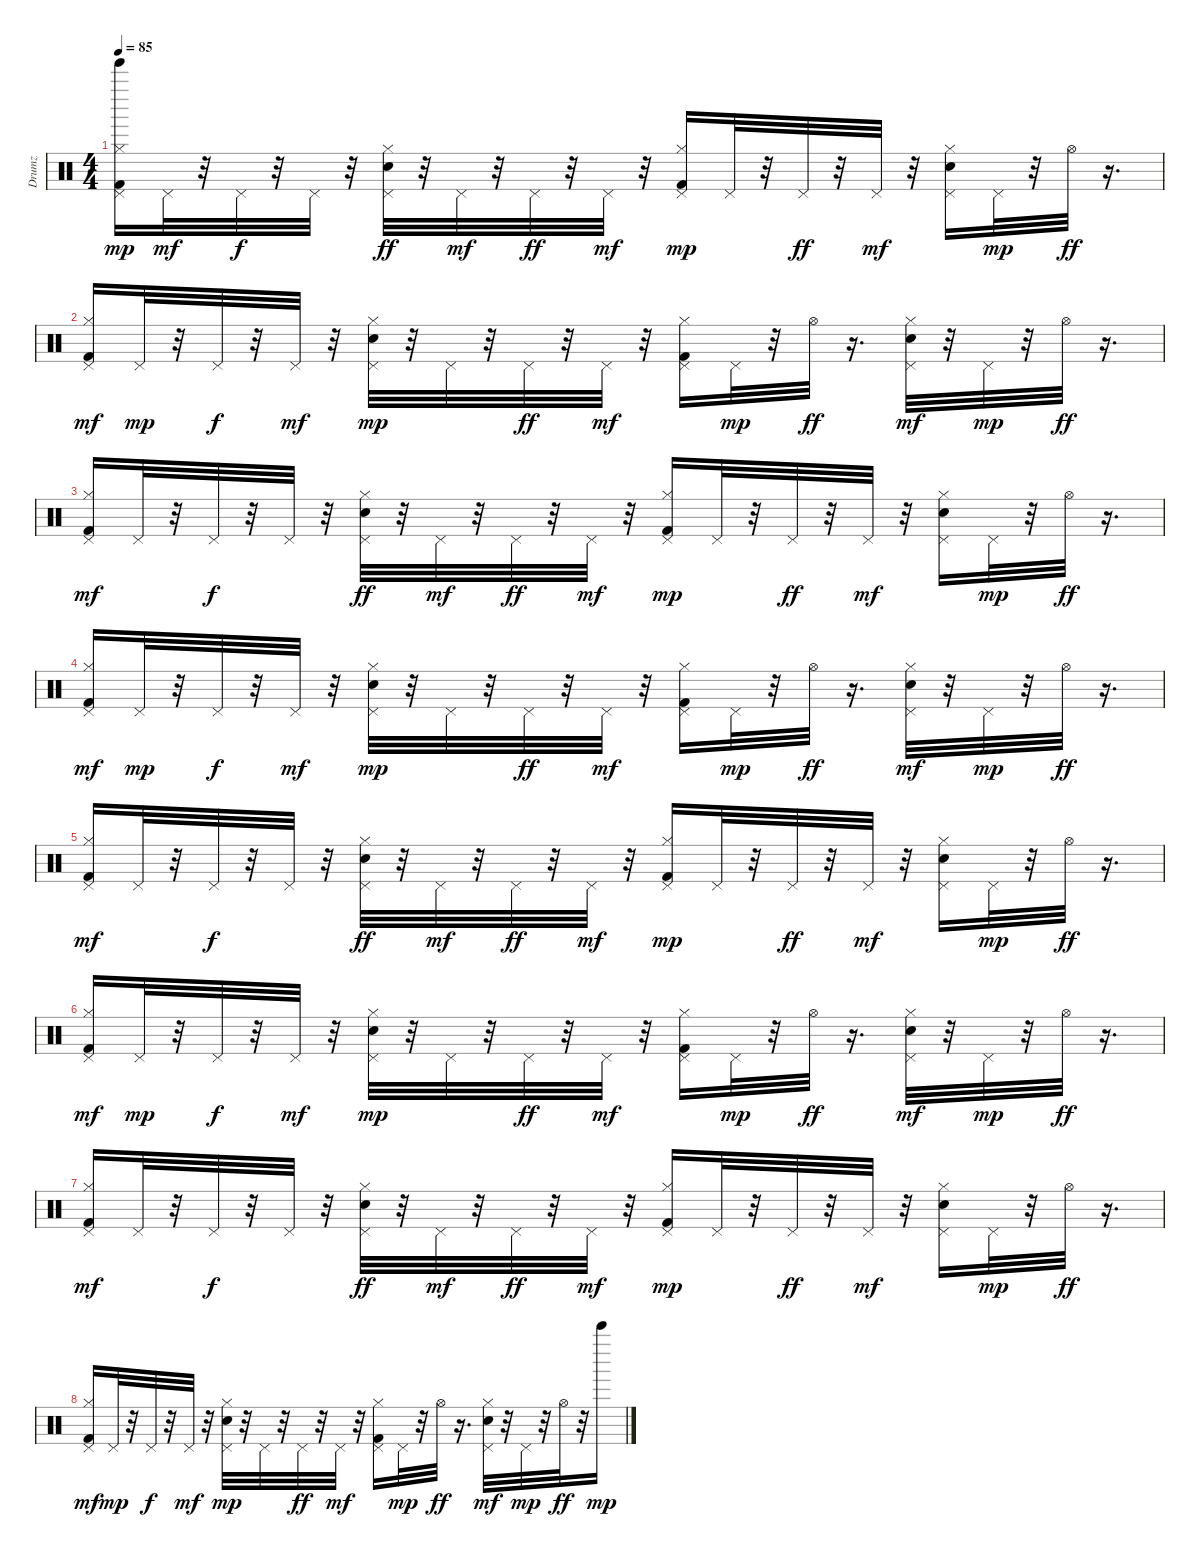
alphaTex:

\track ("Drumz" "Drumz") {instrument percussion}
\staff {score}
\articulation defaults
\ts (4 4)
\tempo 85
\clef neutral
\ks c
("Kick (hit) 2" "Hi-Hat (closed)" "Pedal Hi-Hat (hit)" "Tinkle Bell (hit)").16{dy mp volume 12} "Pedal Hi-Hat (hit)".32{dy mf} r.32 "Pedal Hi-Hat (hit)".32{dy f} r.32 "Pedal Hi-Hat (hit)".32 r.32 ("Hand Clap (hit)" "Hi-Hat (closed)" "Pedal Hi-Hat (hit)").32{dy ff} r.32 "Pedal Hi-Hat (hit)".32{dy mf} r.32 "Pedal Hi-Hat (hit)".32{dy ff} r.32 "Pedal Hi-Hat (hit)".32{dy mf} r.32 ("Kick (hit) 2" "Hi-Hat (closed)" "Pedal Hi-Hat (hit)").16{dy mp} "Pedal Hi-Hat (hit)".32 r.32 "Pedal Hi-Hat (hit)".32{dy ff} r.32 "Pedal Hi-Hat (hit)".32{dy mf} r.32 ("Hand Clap (hit)" "Hi-Hat (closed)" "Pedal Hi-Hat (hit)").16 "Pedal Hi-Hat (hit)".32{dy mp} r.32 "Hi-Hat (open)".32{dy ff} r.16{d} |
("Kick (hit) 2" "Hi-Hat (closed)" "Pedal Hi-Hat (hit)").16{dy mf} "Pedal Hi-Hat (hit)".32{dy mp} r.32 "Pedal Hi-Hat (hit)".32{dy f} r.32 "Pedal Hi-Hat (hit)".32{dy mf} r.32 ("Hand Clap (hit)" "Hi-Hat (closed)" "Pedal Hi-Hat (hit)").32{dy mp} r.32 "Pedal Hi-Hat (hit)".32 r.32 "Pedal Hi-Hat (hit)".32{dy ff} r.32 "Pedal Hi-Hat (hit)".32{dy mf} r.32 ("Kick (hit) 2" "Hi-Hat (closed)" "Pedal Hi-Hat (hit)").16 "Pedal Hi-Hat (hit)".32{dy mp} r.32 "Hi-Hat (open)".32{dy ff} r.16{d} ("Hand Clap (hit)" "Hi-Hat (closed)" "Pedal Hi-Hat (hit)").32{dy mf} r.32 "Pedal Hi-Hat (hit)".32{dy mp} r.32 "Hi-Hat (open)".32{dy ff} r.16{d} |
("Kick (hit) 2" "Hi-Hat (closed)" "Pedal Hi-Hat (hit)").16{dy mf} "Pedal Hi-Hat (hit)".32 r.32 "Pedal Hi-Hat (hit)".32{dy f} r.32 "Pedal Hi-Hat (hit)".32 r.32 ("Hand Clap (hit)" "Hi-Hat (closed)" "Pedal Hi-Hat (hit)").32{dy ff} r.32 "Pedal Hi-Hat (hit)".32{dy mf} r.32 "Pedal Hi-Hat (hit)".32{dy ff} r.32 "Pedal Hi-Hat (hit)".32{dy mf} r.32 ("Kick (hit) 2" "Hi-Hat (closed)" "Pedal Hi-Hat (hit)").16{dy mp} "Pedal Hi-Hat (hit)".32 r.32 "Pedal Hi-Hat (hit)".32{dy ff} r.32 "Pedal Hi-Hat (hit)".32{dy mf} r.32 ("Hand Clap (hit)" "Hi-Hat (closed)" "Pedal Hi-Hat (hit)").16 "Pedal Hi-Hat (hit)".32{dy mp} r.32 "Hi-Hat (open)".32{dy ff} r.16{d} |
("Kick (hit) 2" "Hi-Hat (closed)" "Pedal Hi-Hat (hit)").16{dy mf} "Pedal Hi-Hat (hit)".32{dy mp} r.32 "Pedal Hi-Hat (hit)".32{dy f} r.32 "Pedal Hi-Hat (hit)".32{dy mf} r.32 ("Hand Clap (hit)" "Hi-Hat (closed)" "Pedal Hi-Hat (hit)").32{dy mp} r.32 "Pedal Hi-Hat (hit)".32 r.32 "Pedal Hi-Hat (hit)".32{dy ff} r.32 "Pedal Hi-Hat (hit)".32{dy mf} r.32 ("Kick (hit) 2" "Hi-Hat (closed)" "Pedal Hi-Hat (hit)").16 "Pedal Hi-Hat (hit)".32{dy mp} r.32 "Hi-Hat (open)".32{dy ff} r.16{d} ("Hand Clap (hit)" "Hi-Hat (closed)" "Pedal Hi-Hat (hit)").32{dy mf} r.32 "Pedal Hi-Hat (hit)".32{dy mp} r.32 "Hi-Hat (open)".32{dy ff} r.16{d} |
("Kick (hit) 2" "Hi-Hat (closed)" "Pedal Hi-Hat (hit)").16{dy mf} "Pedal Hi-Hat (hit)".32 r.32 "Pedal Hi-Hat (hit)".32{dy f} r.32 "Pedal Hi-Hat (hit)".32 r.32 ("Hand Clap (hit)" "Hi-Hat (closed)" "Pedal Hi-Hat (hit)").32{dy ff} r.32 "Pedal Hi-Hat (hit)".32{dy mf} r.32 "Pedal Hi-Hat (hit)".32{dy ff} r.32 "Pedal Hi-Hat (hit)".32{dy mf} r.32 ("Kick (hit) 2" "Hi-Hat (closed)" "Pedal Hi-Hat (hit)").16{dy mp} "Pedal Hi-Hat (hit)".32 r.32 "Pedal Hi-Hat (hit)".32{dy ff} r.32 "Pedal Hi-Hat (hit)".32{dy mf} r.32 ("Hand Clap (hit)" "Hi-Hat (closed)" "Pedal Hi-Hat (hit)").16 "Pedal Hi-Hat (hit)".32{dy mp} r.32 "Hi-Hat (open)".32{dy ff} r.16{d} |
("Kick (hit) 2" "Hi-Hat (closed)" "Pedal Hi-Hat (hit)").16{dy mf} "Pedal Hi-Hat (hit)".32{dy mp} r.32 "Pedal Hi-Hat (hit)".32{dy f} r.32 "Pedal Hi-Hat (hit)".32{dy mf} r.32 ("Hand Clap (hit)" "Hi-Hat (closed)" "Pedal Hi-Hat (hit)").32{dy mp} r.32 "Pedal Hi-Hat (hit)".32 r.32 "Pedal Hi-Hat (hit)".32{dy ff} r.32 "Pedal Hi-Hat (hit)".32{dy mf} r.32 ("Kick (hit) 2" "Hi-Hat (closed)" "Pedal Hi-Hat (hit)").16 "Pedal Hi-Hat (hit)".32{dy mp} r.32 "Hi-Hat (open)".32{dy ff} r.16{d} ("Hand Clap (hit)" "Hi-Hat (closed)" "Pedal Hi-Hat (hit)").32{dy mf} r.32 "Pedal Hi-Hat (hit)".32{dy mp} r.32 "Hi-Hat (open)".32{dy ff} r.16{d} |
("Kick (hit) 2" "Hi-Hat (closed)" "Pedal Hi-Hat (hit)").16{dy mf} "Pedal Hi-Hat (hit)".32 r.32 "Pedal Hi-Hat (hit)".32{dy f} r.32 "Pedal Hi-Hat (hit)".32 r.32 ("Hand Clap (hit)" "Hi-Hat (closed)" "Pedal Hi-Hat (hit)").32{dy ff} r.32 "Pedal Hi-Hat (hit)".32{dy mf} r.32 "Pedal Hi-Hat (hit)".32{dy ff} r.32 "Pedal Hi-Hat (hit)".32{dy mf} r.32 ("Kick (hit) 2" "Hi-Hat (closed)" "Pedal Hi-Hat (hit)").16{dy mp} "Pedal Hi-Hat (hit)".32 r.32 "Pedal Hi-Hat (hit)".32{dy ff} r.32 "Pedal Hi-Hat (hit)".32{dy mf} r.32 ("Hand Clap (hit)" "Hi-Hat (closed)" "Pedal Hi-Hat (hit)").16 "Pedal Hi-Hat (hit)".32{dy mp} r.32 "Hi-Hat (open)".32{dy ff} r.16{d} |
("Kick (hit) 2" "Hi-Hat (closed)" "Pedal Hi-Hat (hit)").16{dy mf} "Pedal Hi-Hat (hit)".32{dy mp} r.32 "Pedal Hi-Hat (hit)".32{dy f} r.32 "Pedal Hi-Hat (hit)".32{dy mf} r.32 ("Hand Clap (hit)" "Hi-Hat (closed)" "Pedal Hi-Hat (hit)").32{dy mp} r.32 "Pedal Hi-Hat (hit)".32 r.32 "Pedal Hi-Hat (hit)".32{dy ff} r.32 "Pedal Hi-Hat (hit)".32{dy mf} r.32 ("Kick (hit) 2" "Hi-Hat (closed)" "Pedal Hi-Hat (hit)").16 "Pedal Hi-Hat (hit)".32{dy mp} r.32 "Hi-Hat (open)".32{dy ff} r.16{d} ("Hand Clap (hit)" "Hi-Hat (closed)" "Pedal Hi-Hat (hit)").32{dy mf} r.32 "Pedal Hi-Hat (hit)".32{dy mp} r.32 "Hi-Hat (open)".32{dy ff} r.32 "Bell Tree (hit)".16{dy mp}
